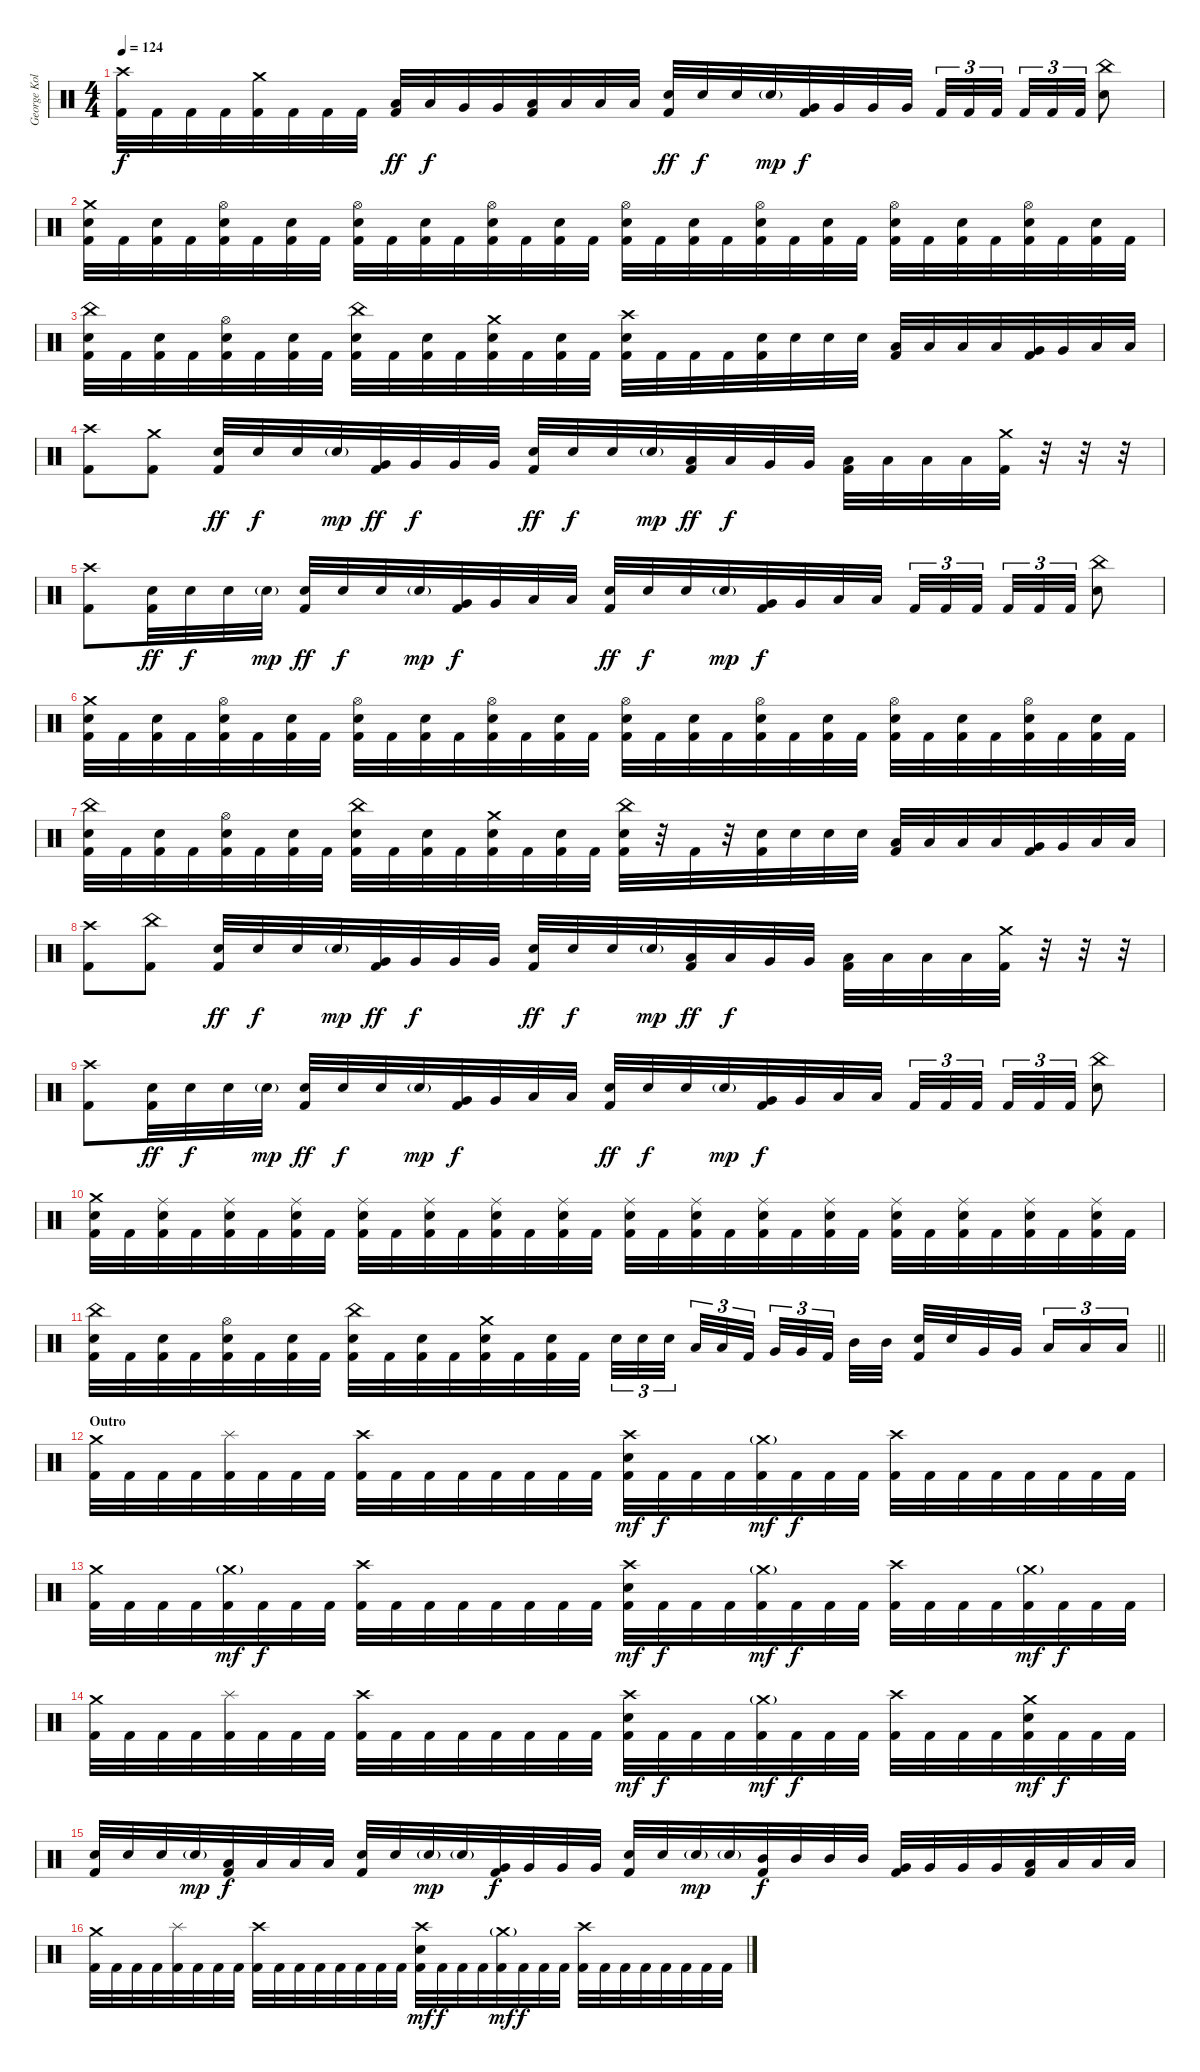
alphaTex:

\track ("George Kollias" "George Kol") {instrument percussion}
\staff {score}
\articulation defaults
\ts (4 4)
\tempo 124
\clef neutral
\ks c
("Crash high (hit)" "Kick (hit) 2").32{dy f} "Kick (hit) 2".32 "Kick (hit) 2".32 "Kick (hit) 2".32 ("Crash medium (hit)" "Kick (hit) 2").32 "Kick (hit) 2".32 "Kick (hit) 2".32 "Kick (hit) 2".32 ("Low Tom (hit)" "Kick (hit) 2").32{dy ff} "Low Tom (hit)".32{dy f} "Very Low Tom (hit)".32 "Very Low Tom (hit)".32 ("Low Floor Tom (hit)" "Kick (hit) 2").32 "Low Floor Tom (hit)".32 "Low Floor Tom (hit)".32 "Low Floor Tom (hit)".32 ("Electric Snare (hit)" "Kick (hit) 2").32{dy ff} "Electric Snare (hit)".32{dy f} "Electric Snare (hit)".32 "Electric Snare (hit)"{g}.32{dy mp} ("Very Low Tom (hit)" "Kick (hit) 2").32{dy f} "Very Low Tom (hit)".32 "Very Low Tom (hit)".32 "Very Low Tom (hit)".32 "Kick (hit) 2".32{tu (3 2)} "Kick (hit) 2".32{tu (3 2)} "Kick (hit) 2".32{tu (3 2) beam splitsecondary} "Kick (hit) 2".32{tu (3 2)} "Kick (hit) 2".32{tu (3 2)} "Kick (hit) 2".32{tu (3 2)} ("China (hit)" "Electric Snare (hit)").8 |
("Crash medium (hit)" "Electric Snare (hit)" "Kick (hit) 2").32 "Kick (hit) 2".32 ("Electric Snare (hit)" "Kick (hit) 2").32 "Kick (hit) 2".32 ("Hi-Hat (open)" "Electric Snare (hit)" "Kick (hit) 2").32 "Kick (hit) 2".32 ("Electric Snare (hit)" "Kick (hit) 2").32 "Kick (hit) 2".32 ("Hi-Hat (open)" "Electric Snare (hit)" "Kick (hit) 2").32 "Kick (hit) 2".32 ("Electric Snare (hit)" "Kick (hit) 2").32 "Kick (hit) 2".32 ("Hi-Hat (open)" "Electric Snare (hit)" "Kick (hit) 2").32 "Kick (hit) 2".32 ("Electric Snare (hit)" "Kick (hit) 2").32 "Kick (hit) 2".32 ("Hi-Hat (open)" "Electric Snare (hit)" "Kick (hit) 2").32 "Kick (hit) 2".32 ("Electric Snare (hit)" "Kick (hit) 2").32 "Kick (hit) 2".32 ("Hi-Hat (open)" "Electric Snare (hit)" "Kick (hit) 2").32 "Kick (hit) 2".32 ("Electric Snare (hit)" "Kick (hit) 2").32 "Kick (hit) 2".32 ("Hi-Hat (open)" "Electric Snare (hit)" "Kick (hit) 2").32 "Kick (hit) 2".32 ("Electric Snare (hit)" "Kick (hit) 2").32 "Kick (hit) 2".32 ("Hi-Hat (open)" "Electric Snare (hit)" "Kick (hit) 2").32 "Kick (hit) 2".32 ("Electric Snare (hit)" "Kick (hit) 2").32 "Kick (hit) 2".32 |
("China (hit)" "Electric Snare (hit)" "Kick (hit) 2").32 "Kick (hit) 2".32 ("Electric Snare (hit)" "Kick (hit) 2").32 "Kick (hit) 2".32 ("Hi-Hat (open)" "Electric Snare (hit)" "Kick (hit) 2").32 "Kick (hit) 2".32 ("Electric Snare (hit)" "Kick (hit) 2").32 "Kick (hit) 2".32 ("China (hit)" "Electric Snare (hit)" "Kick (hit) 2").32 "Kick (hit) 2".32 ("Electric Snare (hit)" "Kick (hit) 2").32 "Kick (hit) 2".32 ("Crash medium (hit)" "Electric Snare (hit)" "Kick (hit) 2").32 "Kick (hit) 2".32 ("Electric Snare (hit)" "Kick (hit) 2").32 "Kick (hit) 2".32 ("Crash high (hit)" "Electric Snare (hit)" "Kick (hit) 2").32 "Kick (hit) 2".32 "Kick (hit) 2".32 "Kick (hit) 2".32 ("Electric Snare (hit)" "Kick (hit) 2").32 "Electric Snare (hit)".32 "Electric Snare (hit)".32 "Electric Snare (hit)".32 ("Low Tom (hit)" "Kick (hit) 2").32 "Low Tom (hit)".32 "Low Tom (hit)".32 "Low Tom (hit)".32 ("Very Low Tom (hit)" "Kick (hit) 2").32 "Very Low Tom (hit)".32 "Low Floor Tom (hit)".32 "Low Floor Tom (hit)".32 |
("Crash high (hit)" "Kick (hit) 2").8 ("Crash medium (hit)" "Kick (hit) 2").8 ("Electric Snare (hit)" "Kick (hit) 2").32{dy ff} "Electric Snare (hit)".32{dy f} "Electric Snare (hit)".32 "Electric Snare (hit)"{g}.32{dy mp} ("Very Low Tom (hit)" "Kick (hit) 2").32{dy ff} "Very Low Tom (hit)".32{dy f} "Very Low Tom (hit)".32 "Very Low Tom (hit)".32 ("Electric Snare (hit)" "Kick (hit) 2").32{dy ff} "Electric Snare (hit)".32{dy f} "Electric Snare (hit)".32 "Electric Snare (hit)"{g}.32{dy mp} ("Low Tom (hit)" "Kick (hit) 2").32{dy ff} "Low Tom (hit)".32{dy f} "Very Low Tom (hit)".32 "Very Low Tom (hit)".32 ("Low Floor Tom (hit)" "Kick (hit) 2").32 "Low Floor Tom (hit)".32 "Low Floor Tom (hit)".32 "Low Floor Tom (hit)".32 ("Crash medium (hit)" "Kick (hit) 2").32 r.32 r.32 r.32 |
("Crash high (hit)" "Kick (hit) 2").8 ("Electric Snare (hit)" "Kick (hit) 2").32{dy ff} "Electric Snare (hit)".32{dy f} "Electric Snare (hit)".32 "Electric Snare (hit)"{g}.32{dy mp} ("Electric Snare (hit)" "Kick (hit) 2").32{dy ff} "Electric Snare (hit)".32{dy f} "Electric Snare (hit)".32 "Electric Snare (hit)"{g}.32{dy mp} ("Very Low Tom (hit)" "Kick (hit) 2").32{dy f} "Very Low Tom (hit)".32 "Low Floor Tom (hit)".32 "Low Floor Tom (hit)".32 ("Electric Snare (hit)" "Kick (hit) 2").32{dy ff} "Electric Snare (hit)".32{dy f} "Electric Snare (hit)".32 "Electric Snare (hit)"{g}.32{dy mp} ("Very Low Tom (hit)" "Kick (hit) 2").32{dy f} "Very Low Tom (hit)".32 "Low Floor Tom (hit)".32 "Low Floor Tom (hit)".32 "Kick (hit) 2".32{tu (3 2)} "Kick (hit) 2".32{tu (3 2)} "Kick (hit) 2".32{tu (3 2) beam splitsecondary} "Kick (hit) 2".32{tu (3 2)} "Kick (hit) 2".32{tu (3 2)} "Kick (hit) 2".32{tu (3 2)} ("China (hit)" "Electric Snare (hit)").8 |
("Crash medium (hit)" "Electric Snare (hit)" "Kick (hit) 2").32 "Kick (hit) 2".32 ("Electric Snare (hit)" "Kick (hit) 2").32 "Kick (hit) 2".32 ("Hi-Hat (open)" "Electric Snare (hit)" "Kick (hit) 2").32 "Kick (hit) 2".32 ("Electric Snare (hit)" "Kick (hit) 2").32 "Kick (hit) 2".32 ("Hi-Hat (open)" "Electric Snare (hit)" "Kick (hit) 2").32 "Kick (hit) 2".32 ("Electric Snare (hit)" "Kick (hit) 2").32 "Kick (hit) 2".32 ("Hi-Hat (open)" "Electric Snare (hit)" "Kick (hit) 2").32 "Kick (hit) 2".32 ("Electric Snare (hit)" "Kick (hit) 2").32 "Kick (hit) 2".32 ("Hi-Hat (open)" "Electric Snare (hit)" "Kick (hit) 2").32 "Kick (hit) 2".32 ("Electric Snare (hit)" "Kick (hit) 2").32 "Kick (hit) 2".32 ("Hi-Hat (open)" "Electric Snare (hit)" "Kick (hit) 2").32 "Kick (hit) 2".32 ("Electric Snare (hit)" "Kick (hit) 2").32 "Kick (hit) 2".32 ("Hi-Hat (open)" "Electric Snare (hit)" "Kick (hit) 2").32 "Kick (hit) 2".32 ("Electric Snare (hit)" "Kick (hit) 2").32 "Kick (hit) 2".32 ("Hi-Hat (open)" "Electric Snare (hit)" "Kick (hit) 2").32 "Kick (hit) 2".32 ("Electric Snare (hit)" "Kick (hit) 2").32 "Kick (hit) 2".32 |
("China (hit)" "Electric Snare (hit)" "Kick (hit) 2").32 "Kick (hit) 2".32 ("Electric Snare (hit)" "Kick (hit) 2").32 "Kick (hit) 2".32 ("Hi-Hat (open)" "Electric Snare (hit)" "Kick (hit) 2").32 "Kick (hit) 2".32 ("Electric Snare (hit)" "Kick (hit) 2").32 "Kick (hit) 2".32 ("China (hit)" "Electric Snare (hit)" "Kick (hit) 2").32 "Kick (hit) 2".32 ("Electric Snare (hit)" "Kick (hit) 2").32 "Kick (hit) 2".32 ("Crash medium (hit)" "Electric Snare (hit)" "Kick (hit) 2").32 "Kick (hit) 2".32 ("Electric Snare (hit)" "Kick (hit) 2").32 "Kick (hit) 2".32 ("China (hit)" "Electric Snare (hit)" "Kick (hit) 2").32 r.32 "Kick (hit) 2".32 r.32 ("Electric Snare (hit)" "Kick (hit) 2").32 "Electric Snare (hit)".32 "Electric Snare (hit)".32 "Electric Snare (hit)".32 ("Low Tom (hit)" "Kick (hit) 2").32 "Low Tom (hit)".32 "Low Tom (hit)".32 "Low Tom (hit)".32 ("Very Low Tom (hit)" "Kick (hit) 2").32 "Very Low Tom (hit)".32 "Low Floor Tom (hit)".32 "Low Floor Tom (hit)".32 |
("Crash high (hit)" "Kick (hit) 2").8 ("China (hit)" "Kick (hit) 2").8 ("Electric Snare (hit)" "Kick (hit) 2").32{dy ff} "Electric Snare (hit)".32{dy f} "Electric Snare (hit)".32 "Electric Snare (hit)"{g}.32{dy mp} ("Very Low Tom (hit)" "Kick (hit) 2").32{dy ff} "Very Low Tom (hit)".32{dy f} "Very Low Tom (hit)".32 "Very Low Tom (hit)".32 ("Electric Snare (hit)" "Kick (hit) 2").32{dy ff} "Electric Snare (hit)".32{dy f} "Electric Snare (hit)".32 "Electric Snare (hit)"{g}.32{dy mp} ("Low Tom (hit)" "Kick (hit) 2").32{dy ff} "Low Tom (hit)".32{dy f} "Very Low Tom (hit)".32 "Very Low Tom (hit)".32 ("Low Floor Tom (hit)" "Kick (hit) 2").32 "Low Floor Tom (hit)".32 "Low Floor Tom (hit)".32 "Low Floor Tom (hit)".32 ("Crash medium (hit)" "Kick (hit) 2").32 r.32 r.32 r.32 |
("Crash high (hit)" "Kick (hit) 2").8 ("Electric Snare (hit)" "Kick (hit) 2").32{dy ff} "Electric Snare (hit)".32{dy f} "Electric Snare (hit)".32 "Electric Snare (hit)"{g}.32{dy mp} ("Electric Snare (hit)" "Kick (hit) 2").32{dy ff} "Electric Snare (hit)".32{dy f} "Electric Snare (hit)".32 "Electric Snare (hit)"{g}.32{dy mp} ("Very Low Tom (hit)" "Kick (hit) 2").32{dy f} "Very Low Tom (hit)".32 "Low Floor Tom (hit)".32 "Low Floor Tom (hit)".32 ("Electric Snare (hit)" "Kick (hit) 2").32{dy ff} "Electric Snare (hit)".32{dy f} "Electric Snare (hit)".32 "Electric Snare (hit)"{g}.32{dy mp} ("Very Low Tom (hit)" "Kick (hit) 2").32{dy f} "Very Low Tom (hit)".32 "Low Floor Tom (hit)".32 "Low Floor Tom (hit)".32 "Kick (hit) 2".32{tu (3 2)} "Kick (hit) 2".32{tu (3 2)} "Kick (hit) 2".32{tu (3 2) beam splitsecondary} "Kick (hit) 2".32{tu (3 2)} "Kick (hit) 2".32{tu (3 2)} "Kick (hit) 2".32{tu (3 2)} ("China (hit)" "Electric Snare (hit)").8 |
("Crash medium (hit)" "Electric Snare (hit)" "Kick (hit) 2").32 "Kick (hit) 2".32 ("Ride (middle)" "Electric Snare (hit)" "Kick (hit) 2").32 "Kick (hit) 2".32 ("Ride (middle)" "Electric Snare (hit)" "Kick (hit) 2").32 "Kick (hit) 2".32 ("Ride (middle)" "Electric Snare (hit)" "Kick (hit) 2").32 "Kick (hit) 2".32 ("Ride (middle)" "Electric Snare (hit)" "Kick (hit) 2").32 "Kick (hit) 2".32 ("Ride (middle)" "Electric Snare (hit)" "Kick (hit) 2").32 "Kick (hit) 2".32 ("Ride (middle)" "Electric Snare (hit)" "Kick (hit) 2").32 "Kick (hit) 2".32 ("Ride (middle)" "Electric Snare (hit)" "Kick (hit) 2").32 "Kick (hit) 2".32 ("Ride (middle)" "Electric Snare (hit)" "Kick (hit) 2").32 "Kick (hit) 2".32 ("Ride (middle)" "Electric Snare (hit)" "Kick (hit) 2").32 "Kick (hit) 2".32 ("Ride (middle)" "Electric Snare (hit)" "Kick (hit) 2").32 "Kick (hit) 2".32 ("Ride (middle)" "Electric Snare (hit)" "Kick (hit) 2").32 "Kick (hit) 2".32 ("Ride (middle)" "Electric Snare (hit)" "Kick (hit) 2").32 "Kick (hit) 2".32 ("Ride (middle)" "Electric Snare (hit)" "Kick (hit) 2").32 "Kick (hit) 2".32 ("Ride (middle)" "Electric Snare (hit)" "Kick (hit) 2").32 "Kick (hit) 2".32 ("Ride (middle)" "Electric Snare (hit)" "Kick (hit) 2").32 "Kick (hit) 2".32 |
\barLineRight lightlight
("China (hit)" "Electric Snare (hit)" "Kick (hit) 2").32 "Kick (hit) 2".32 ("Electric Snare (hit)" "Kick (hit) 2").32 "Kick (hit) 2".32 ("Hi-Hat (open)" "Electric Snare (hit)" "Kick (hit) 2").32 "Kick (hit) 2".32 ("Electric Snare (hit)" "Kick (hit) 2").32 "Kick (hit) 2".32 ("China (hit)" "Electric Snare (hit)" "Kick (hit) 2").32 "Kick (hit) 2".32 ("Electric Snare (hit)" "Kick (hit) 2").32 "Kick (hit) 2".32 ("Crash medium (hit)" "Electric Snare (hit)" "Kick (hit) 2").32 "Kick (hit) 2".32 ("Electric Snare (hit)" "Kick (hit) 2").32 "Kick (hit) 2".32 "Electric Snare (hit)".32{tu (3 2)} "Electric Snare (hit)".32{tu (3 2)} "Electric Snare (hit)".32{tu (3 2) beam splitsecondary} "Low Tom (hit)".32{tu (3 2)} "Low Tom (hit)".32{tu (3 2)} "Kick (hit) 2".32{tu (3 2) beam splitsecondary} "Very Low Tom (hit)".32{tu (3 2)} "Very Low Tom (hit)".32{tu (3 2)} "Kick (hit) 2".32{tu (3 2) beam splitsecondary} "Mid Tom (hit)".32 "Mid Tom (hit)".32 ("Electric Snare (hit)" "Kick (hit) 2").32 "Electric Snare (hit)".32 "Very Low Tom (hit)".32 "Very Low Tom (hit)".32{beam splitsecondary} "Low Floor Tom (hit)".16{tu (3 2)} "Low Floor Tom (hit)".16{tu (3 2)} "Low Floor Tom (hit)".16{tu (3 2)} |
\section ("" "Outro")
("Crash medium (hit)" "Kick (hit) 2").32 "Kick (hit) 2".32 "Kick (hit) 2".32 "Kick (hit) 2".32 ("Splash (hit)" "Kick (hit) 2").32 "Kick (hit) 2".32 "Kick (hit) 2".32 "Kick (hit) 2".32 ("Crash high (hit)" "Kick (hit) 2").32 "Kick (hit) 2".32 "Kick (hit) 2".32 "Kick (hit) 2".32 "Kick (hit) 2".32 "Kick (hit) 2".32 "Kick (hit) 2".32 "Kick (hit) 2".32 ("Crash high (hit)" "Electric Snare (hit)" "Kick (hit) 2").32{dy mf} "Kick (hit) 2".32{dy f} "Kick (hit) 2".32 "Kick (hit) 2".32 ("Crash medium (hit)"{g} "Kick (hit) 2").32{dy mf} "Kick (hit) 2".32{dy f} "Kick (hit) 2".32 "Kick (hit) 2".32 ("Crash high (hit)" "Kick (hit) 2").32 "Kick (hit) 2".32 "Kick (hit) 2".32 "Kick (hit) 2".32 "Kick (hit) 2".32 "Kick (hit) 2".32 "Kick (hit) 2".32 "Kick (hit) 2".32 |
("Crash medium (hit)" "Kick (hit) 2").32 "Kick (hit) 2".32 "Kick (hit) 2".32 "Kick (hit) 2".32 ("Crash medium (hit)"{g} "Kick (hit) 2").32{dy mf} "Kick (hit) 2".32{dy f} "Kick (hit) 2".32 "Kick (hit) 2".32 ("Crash high (hit)" "Kick (hit) 2").32 "Kick (hit) 2".32 "Kick (hit) 2".32 "Kick (hit) 2".32 "Kick (hit) 2".32 "Kick (hit) 2".32 "Kick (hit) 2".32 "Kick (hit) 2".32 ("Crash high (hit)" "Electric Snare (hit)" "Kick (hit) 2").32{dy mf} "Kick (hit) 2".32{dy f} "Kick (hit) 2".32 "Kick (hit) 2".32 ("Crash medium (hit)"{g} "Kick (hit) 2").32{dy mf} "Kick (hit) 2".32{dy f} "Kick (hit) 2".32 "Kick (hit) 2".32 ("Crash high (hit)" "Kick (hit) 2").32 "Kick (hit) 2".32 "Kick (hit) 2".32 "Kick (hit) 2".32 ("Crash medium (hit)"{g} "Kick (hit) 2").32{dy mf} "Kick (hit) 2".32{dy f} "Kick (hit) 2".32 "Kick (hit) 2".32 |
("Crash medium (hit)" "Kick (hit) 2").32 "Kick (hit) 2".32 "Kick (hit) 2".32 "Kick (hit) 2".32 ("Splash (hit)" "Kick (hit) 2").32 "Kick (hit) 2".32 "Kick (hit) 2".32 "Kick (hit) 2".32 ("Crash high (hit)" "Kick (hit) 2").32 "Kick (hit) 2".32 "Kick (hit) 2".32 "Kick (hit) 2".32 "Kick (hit) 2".32 "Kick (hit) 2".32 "Kick (hit) 2".32 "Kick (hit) 2".32 ("Crash high (hit)" "Electric Snare (hit)" "Kick (hit) 2").32{dy mf} "Kick (hit) 2".32{dy f} "Kick (hit) 2".32 "Kick (hit) 2".32 ("Crash medium (hit)"{g} "Kick (hit) 2").32{dy mf} "Kick (hit) 2".32{dy f} "Kick (hit) 2".32 "Kick (hit) 2".32 ("Crash high (hit)" "Kick (hit) 2").32 "Kick (hit) 2".32 "Kick (hit) 2".32 "Kick (hit) 2".32 ("Crash medium (hit)" "Electric Snare (hit)" "Kick (hit) 2").32{dy mf} "Kick (hit) 2".32{dy f} "Kick (hit) 2".32 "Kick (hit) 2".32 |
("Electric Snare (hit)" "Kick (hit) 2").32 "Electric Snare (hit)".32 "Electric Snare (hit)".32 "Electric Snare (hit)"{g}.32{dy mp} ("Low Tom (hit)" "Kick (hit) 2").32{dy f} "Low Tom (hit)".32 "Low Tom (hit)".32 "Low Tom (hit)".32 ("Electric Snare (hit)" "Kick (hit) 2").32 "Electric Snare (hit)".32 "Electric Snare (hit)"{g}.32{dy mp} "Electric Snare (hit)"{g}.32 ("Very Low Tom (hit)" "Kick (hit) 2").32{dy f} "Very Low Tom (hit)".32 "Very Low Tom (hit)".32 "Very Low Tom (hit)".32 ("Electric Snare (hit)" "Kick (hit) 2").32 "Electric Snare (hit)".32 "Electric Snare (hit)"{g}.32{dy mp} "Electric Snare (hit)"{g}.32 ("Mid Tom (hit)" "Kick (hit) 2").32{dy f} "Mid Tom (hit)".32 "Mid Tom (hit)".32 "Mid Tom (hit)".32 ("Very Low Tom (hit)" "Kick (hit) 2").32 "Very Low Tom (hit)".32 "Very Low Tom (hit)".32 "Very Low Tom (hit)".32 ("Low Floor Tom (hit)" "Kick (hit) 2").32 "Low Floor Tom (hit)".32 "Low Floor Tom (hit)".32 "Low Floor Tom (hit)".32 |
("Crash medium (hit)" "Kick (hit) 2").32 "Kick (hit) 2".32 "Kick (hit) 2".32 "Kick (hit) 2".32 ("Splash (hit)" "Kick (hit) 2").32 "Kick (hit) 2".32 "Kick (hit) 2".32 "Kick (hit) 2".32 ("Crash high (hit)" "Kick (hit) 2").32 "Kick (hit) 2".32 "Kick (hit) 2".32 "Kick (hit) 2".32 "Kick (hit) 2".32 "Kick (hit) 2".32 "Kick (hit) 2".32 "Kick (hit) 2".32 ("Crash high (hit)" "Electric Snare (hit)" "Kick (hit) 2").32{dy mf} "Kick (hit) 2".32{dy f} "Kick (hit) 2".32 "Kick (hit) 2".32 ("Crash medium (hit)"{g} "Kick (hit) 2").32{dy mf} "Kick (hit) 2".32{dy f} "Kick (hit) 2".32 "Kick (hit) 2".32 ("Crash high (hit)" "Kick (hit) 2").32 "Kick (hit) 2".32 "Kick (hit) 2".32 "Kick (hit) 2".32 "Kick (hit) 2".32 "Kick (hit) 2".32 "Kick (hit) 2".32 "Kick (hit) 2".32
